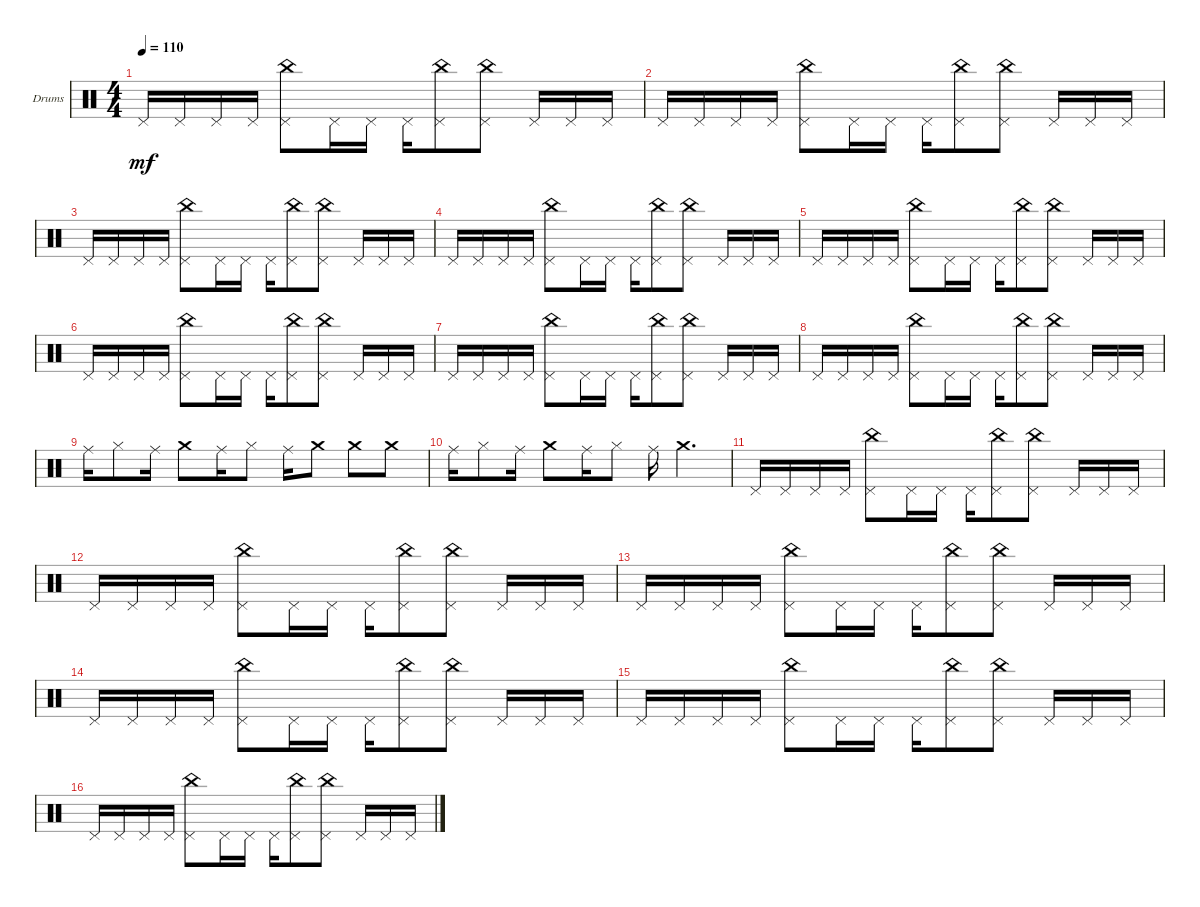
\defaultSystemsLayout 4
\bracketExtendMode groupsimilarinstruments
\firstSystemTrackNameOrientation horizontal
\otherSystemsTrackNameOrientation horizontal
\track ("Drumkit" "Drums") {instrument percussion}
\staff {score}
\articulation defaults
\ts (4 4)
\tempo 110
\clef neutral
\ks c "Pedal Hi-Hat (hit)".16{dy mf} "Pedal Hi-Hat (hit)".16 "Pedal Hi-Hat (hit)".16 "Pedal Hi-Hat (hit)".16
("Pedal Hi-Hat (hit)" "China (hit)").8 "Pedal Hi-Hat (hit)".16 "Pedal Hi-Hat (hit)".16 "Pedal Hi-Hat (hit)".16 ("Pedal Hi-Hat (hit)" "China (hit)").8 ("China (hit)" "Pedal Hi-Hat (hit)").8 "Pedal Hi-Hat (hit)".16 "Pedal Hi-Hat (hit)".16 "Pedal Hi-Hat (hit)".16 |
"Pedal Hi-Hat (hit)".16 "Pedal Hi-Hat (hit)".16 "Pedal Hi-Hat (hit)".16 "Pedal Hi-Hat (hit)".16 ("Pedal Hi-Hat (hit)" "China (hit)").8 "Pedal Hi-Hat (hit)".16 "Pedal Hi-Hat (hit)".16 "Pedal Hi-Hat (hit)".16 ("Pedal Hi-Hat (hit)" "China (hit)").8 ("China (hit)" "Pedal Hi-Hat (hit)").8 "Pedal Hi-Hat (hit)".16 "Pedal Hi-Hat (hit)".16 "Pedal Hi-Hat (hit)".16 |
"Pedal Hi-Hat (hit)".16 "Pedal Hi-Hat (hit)".16 "Pedal Hi-Hat (hit)".16 "Pedal Hi-Hat (hit)".16 ("Pedal Hi-Hat (hit)" "China (hit)").8 "Pedal Hi-Hat (hit)".16 "Pedal Hi-Hat (hit)".16 "Pedal Hi-Hat (hit)".16 ("Pedal Hi-Hat (hit)" "China (hit)").8 ("China (hit)" "Pedal Hi-Hat (hit)").8 "Pedal Hi-Hat (hit)".16 "Pedal Hi-Hat (hit)".16 "Pedal Hi-Hat (hit)".16 |
"Pedal Hi-Hat (hit)".16 "Pedal Hi-Hat (hit)".16 "Pedal Hi-Hat (hit)".16 "Pedal Hi-Hat (hit)".16 ("Pedal Hi-Hat (hit)" "China (hit)").8 "Pedal Hi-Hat (hit)".16 "Pedal Hi-Hat (hit)".16 "Pedal Hi-Hat (hit)".16 ("Pedal Hi-Hat (hit)" "China (hit)").8 ("China (hit)" "Pedal Hi-Hat (hit)").8 "Pedal Hi-Hat (hit)".16 "Pedal Hi-Hat (hit)".16 "Pedal Hi-Hat (hit)".16 |
"Pedal Hi-Hat (hit)".16 "Pedal Hi-Hat (hit)".16 "Pedal Hi-Hat (hit)".16 "Pedal Hi-Hat (hit)".16 ("Pedal Hi-Hat (hit)" "China (hit)").8 "Pedal Hi-Hat (hit)".16 "Pedal Hi-Hat (hit)".16 "Pedal Hi-Hat (hit)".16 ("Pedal Hi-Hat (hit)" "China (hit)").8 ("China (hit)" "Pedal Hi-Hat (hit)").8 "Pedal Hi-Hat (hit)".16 "Pedal Hi-Hat (hit)".16 "Pedal Hi-Hat (hit)".16 |
"Pedal Hi-Hat (hit)".16 "Pedal Hi-Hat (hit)".16 "Pedal Hi-Hat (hit)".16 "Pedal Hi-Hat (hit)".16 ("Pedal Hi-Hat (hit)" "China (hit)").8 "Pedal Hi-Hat (hit)".16 "Pedal Hi-Hat (hit)".16 "Pedal Hi-Hat (hit)".16 ("Pedal Hi-Hat (hit)" "China (hit)").8 ("China (hit)" "Pedal Hi-Hat (hit)").8 "Pedal Hi-Hat (hit)".16 "Pedal Hi-Hat (hit)".16 "Pedal Hi-Hat (hit)".16 |
"Pedal Hi-Hat (hit)".16 "Pedal Hi-Hat (hit)".16 "Pedal Hi-Hat (hit)".16 "Pedal Hi-Hat (hit)".16 ("Pedal Hi-Hat (hit)" "China (hit)").8 "Pedal Hi-Hat (hit)".16 "Pedal Hi-Hat (hit)".16 "Pedal Hi-Hat (hit)".16 ("Pedal Hi-Hat (hit)" "China (hit)").8 ("China (hit)" "Pedal Hi-Hat (hit)").8 "Pedal Hi-Hat (hit)".16 "Pedal Hi-Hat (hit)".16 "Pedal Hi-Hat (hit)".16 |
"Pedal Hi-Hat (hit)".16 "Pedal Hi-Hat (hit)".16 "Pedal Hi-Hat (hit)".16 "Pedal Hi-Hat (hit)".16 ("Pedal Hi-Hat (hit)" "China (hit)").8 "Pedal Hi-Hat (hit)".16 "Pedal Hi-Hat (hit)".16 "Pedal Hi-Hat (hit)".16 ("Pedal Hi-Hat (hit)" "China (hit)").8 ("China (hit)" "Pedal Hi-Hat (hit)").8 "Pedal Hi-Hat (hit)".16 "Pedal Hi-Hat (hit)".16 "Pedal Hi-Hat (hit)".16 |
"Ride (middle)".16 "Hi-Hat (closed)".8 "Ride (middle)".16 "Crash medium (hit)".8 "Ride (middle)".16 "Hi-Hat (closed)".8 "Ride (middle)".16 "Crash medium (hit)".8 "Crash medium (hit)".8 "Crash medium (hit)".8 |
"Ride (middle)".16 "Hi-Hat (closed)".8 "Ride (middle)".16 "Crash medium (hit)".8 "Ride (middle)".16 "Hi-Hat (closed)".8 "Ride (middle)".16 "Crash medium (hit)".4{d} |
"Pedal Hi-Hat (hit)".16 "Pedal Hi-Hat (hit)".16 "Pedal Hi-Hat (hit)".16 "Pedal Hi-Hat (hit)".16 ("Pedal Hi-Hat (hit)" "China (hit)").8 "Pedal Hi-Hat (hit)".16 "Pedal Hi-Hat (hit)".16 "Pedal Hi-Hat (hit)".16 ("Pedal Hi-Hat (hit)" "China (hit)").8 ("China (hit)" "Pedal Hi-Hat (hit)").8 "Pedal Hi-Hat (hit)".16 "Pedal Hi-Hat (hit)".16 "Pedal Hi-Hat (hit)".16 |
"Pedal Hi-Hat (hit)".16 "Pedal Hi-Hat (hit)".16 "Pedal Hi-Hat (hit)".16 "Pedal Hi-Hat (hit)".16 ("Pedal Hi-Hat (hit)" "China (hit)").8 "Pedal Hi-Hat (hit)".16 "Pedal Hi-Hat (hit)".16 "Pedal Hi-Hat (hit)".16 ("Pedal Hi-Hat (hit)" "China (hit)").8 ("China (hit)" "Pedal Hi-Hat (hit)").8 "Pedal Hi-Hat (hit)".16 "Pedal Hi-Hat (hit)".16 "Pedal Hi-Hat (hit)".16 |
"Pedal Hi-Hat (hit)".16 "Pedal Hi-Hat (hit)".16 "Pedal Hi-Hat (hit)".16 "Pedal Hi-Hat (hit)".16 ("Pedal Hi-Hat (hit)" "China (hit)").8 "Pedal Hi-Hat (hit)".16 "Pedal Hi-Hat (hit)".16 "Pedal Hi-Hat (hit)".16 ("Pedal Hi-Hat (hit)" "China (hit)").8 ("China (hit)" "Pedal Hi-Hat (hit)").8 "Pedal Hi-Hat (hit)".16 "Pedal Hi-Hat (hit)".16 "Pedal Hi-Hat (hit)".16 |
"Pedal Hi-Hat (hit)".16 "Pedal Hi-Hat (hit)".16 "Pedal Hi-Hat (hit)".16 "Pedal Hi-Hat (hit)".16 ("Pedal Hi-Hat (hit)" "China (hit)").8 "Pedal Hi-Hat (hit)".16 "Pedal Hi-Hat (hit)".16 "Pedal Hi-Hat (hit)".16 ("Pedal Hi-Hat (hit)" "China (hit)").8 ("China (hit)" "Pedal Hi-Hat (hit)").8 "Pedal Hi-Hat (hit)".16 "Pedal Hi-Hat (hit)".16 "Pedal Hi-Hat (hit)".16 |
"Pedal Hi-Hat (hit)".16 "Pedal Hi-Hat (hit)".16 "Pedal Hi-Hat (hit)".16 "Pedal Hi-Hat (hit)".16 ("Pedal Hi-Hat (hit)" "China (hit)").8 "Pedal Hi-Hat (hit)".16 "Pedal Hi-Hat (hit)".16 "Pedal Hi-Hat (hit)".16 ("Pedal Hi-Hat (hit)" "China (hit)").8 ("China (hit)" "Pedal Hi-Hat (hit)").8 "Pedal Hi-Hat (hit)".16 "Pedal Hi-Hat (hit)".16 "Pedal Hi-Hat (hit)".16 |
"Pedal Hi-Hat (hit)".16 "Pedal Hi-Hat (hit)".16 "Pedal Hi-Hat (hit)".16 "Pedal Hi-Hat (hit)".16 ("Pedal Hi-Hat (hit)" "China (hit)").8 "Pedal Hi-Hat (hit)".16 "Pedal Hi-Hat (hit)".16 "Pedal Hi-Hat (hit)".16 ("Pedal Hi-Hat (hit)" "China (hit)").8 ("China (hit)" "Pedal Hi-Hat (hit)").8 "Pedal Hi-Hat (hit)".16 "Pedal Hi-Hat (hit)".16 "Pedal Hi-Hat (hit)".16
